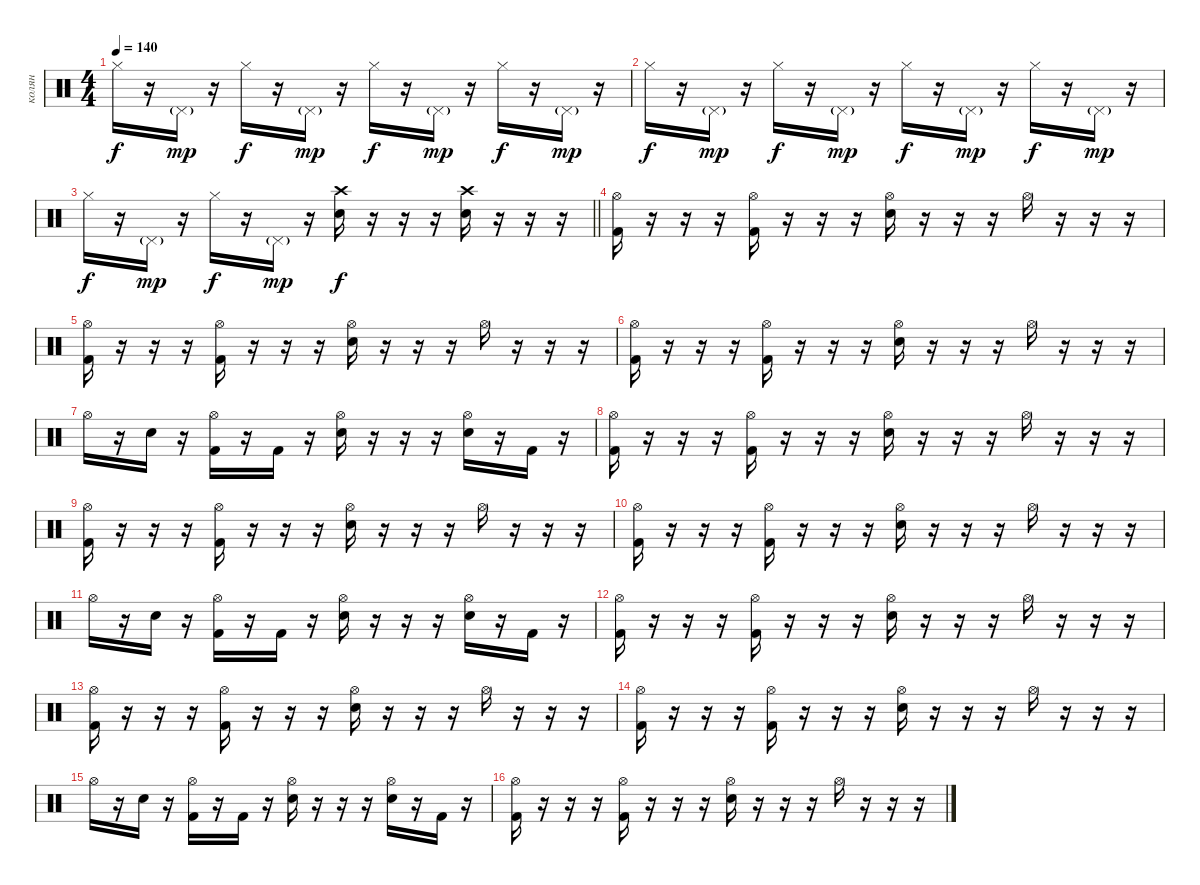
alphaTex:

\track ("колян" "колян") {instrument percussion}
\staff {score}
\articulation defaults
\ts (4 4)
\tempo 140
\clef neutral
\ks c "Hi-Hat (closed)".16{dy f}
r.16 "Pedal Hi-Hat (hit)"{g}.16{dy mp} r.16 "Hi-Hat (closed)".16{dy f} r.16 "Pedal Hi-Hat (hit)"{g}.16{dy mp} r.16 "Hi-Hat (closed)".16{dy f} r.16 "Pedal Hi-Hat (hit)"{g}.16{dy mp} r.16 "Hi-Hat (closed)".16{dy f} r.16 "Pedal Hi-Hat (hit)"{g}.16{dy mp} r.16 |
"Hi-Hat (closed)".16{dy f} r.16 "Pedal Hi-Hat (hit)"{g}.16{dy mp} r.16 "Hi-Hat (closed)".16{dy f} r.16 "Pedal Hi-Hat (hit)"{g}.16{dy mp} r.16 "Hi-Hat (closed)".16{dy f} r.16 "Pedal Hi-Hat (hit)"{g}.16{dy mp} r.16 "Hi-Hat (closed)".16{dy f} r.16 "Pedal Hi-Hat (hit)"{g}.16{dy mp} r.16 |
\barLineRight lightlight "Hi-Hat (closed)".16{dy f}
r.16 "Pedal Hi-Hat (hit)"{g}.16{dy mp} r.16 "Hi-Hat (closed)".16{dy f} r.16 "Pedal Hi-Hat (hit)"{g}.16{dy mp} r.16 ("Snare (hit) 2" "Crash high (hit)").16{dy f} r.16 r.16 r.16 ("Snare (hit) 2" "Crash high (hit)").16 r.16 r.16 r.16 |
("Kick (hit) 2" "Hi-Hat (open)").16 r.16 r.16 r.16 ("Kick (hit) 2" "Hi-Hat (open)").16 r.16 r.16 r.16 ("Snare (hit) 2" "Hi-Hat (open)").16 r.16 r.16 r.16 "Hi-Hat (open)".16 r.16 r.16 r.16 |
("Kick (hit) 2" "Hi-Hat (open)").16 r.16 r.16 r.16 ("Kick (hit) 2" "Hi-Hat (open)").16 r.16 r.16 r.16 ("Snare (hit) 2" "Hi-Hat (open)").16 r.16 r.16 r.16 "Hi-Hat (open)".16 r.16 r.16 r.16 |
("Kick (hit) 2" "Hi-Hat (open)").16 r.16 r.16 r.16 ("Kick (hit) 2" "Hi-Hat (open)").16 r.16 r.16 r.16 ("Snare (hit) 2" "Hi-Hat (open)").16 r.16 r.16 r.16 "Hi-Hat (open)".16 r.16 r.16 r.16 |
"Hi-Hat (open)".16 r.16 "Snare (hit) 2".16 r.16 ("Kick (hit) 2" "Hi-Hat (open)").16 r.16 "Kick (hit) 2".16 r.16 ("Snare (hit) 2" "Hi-Hat (open)").16 r.16 r.16 r.16 ("Snare (hit) 2" "Hi-Hat (open)").16 r.16 "Kick (hit) 2".16 r.16 |
("Kick (hit) 2" "Hi-Hat (open)").16 r.16 r.16 r.16 ("Kick (hit) 2" "Hi-Hat (open)").16 r.16 r.16 r.16 ("Snare (hit) 2" "Hi-Hat (open)").16 r.16 r.16 r.16 "Hi-Hat (open)".16 r.16 r.16 r.16 |
("Kick (hit) 2" "Hi-Hat (open)").16 r.16 r.16 r.16 ("Kick (hit) 2" "Hi-Hat (open)").16 r.16 r.16 r.16 ("Snare (hit) 2" "Hi-Hat (open)").16 r.16 r.16 r.16 "Hi-Hat (open)".16 r.16 r.16 r.16 |
("Kick (hit) 2" "Hi-Hat (open)").16 r.16 r.16 r.16 ("Kick (hit) 2" "Hi-Hat (open)").16 r.16 r.16 r.16 ("Snare (hit) 2" "Hi-Hat (open)").16 r.16 r.16 r.16 "Hi-Hat (open)".16 r.16 r.16 r.16 |
"Hi-Hat (open)".16 r.16 "Snare (hit) 2".16 r.16 ("Kick (hit) 2" "Hi-Hat (open)").16 r.16 "Kick (hit) 2".16 r.16 ("Snare (hit) 2" "Hi-Hat (open)").16 r.16 r.16 r.16 ("Snare (hit) 2" "Hi-Hat (open)").16 r.16 "Kick (hit) 2".16 r.16 |
("Kick (hit) 2" "Hi-Hat (open)").16 r.16 r.16 r.16 ("Kick (hit) 2" "Hi-Hat (open)").16 r.16 r.16 r.16 ("Snare (hit) 2" "Hi-Hat (open)").16 r.16 r.16 r.16 "Hi-Hat (open)".16 r.16 r.16 r.16 |
("Kick (hit) 2" "Hi-Hat (open)").16 r.16 r.16 r.16 ("Kick (hit) 2" "Hi-Hat (open)").16 r.16 r.16 r.16 ("Snare (hit) 2" "Hi-Hat (open)").16 r.16 r.16 r.16 "Hi-Hat (open)".16 r.16 r.16 r.16 |
("Kick (hit) 2" "Hi-Hat (open)").16 r.16 r.16 r.16 ("Kick (hit) 2" "Hi-Hat (open)").16 r.16 r.16 r.16 ("Snare (hit) 2" "Hi-Hat (open)").16 r.16 r.16 r.16 "Hi-Hat (open)".16 r.16 r.16 r.16 |
"Hi-Hat (open)".16 r.16 "Snare (hit) 2".16 r.16 ("Kick (hit) 2" "Hi-Hat (open)").16 r.16 "Kick (hit) 2".16 r.16 ("Snare (hit) 2" "Hi-Hat (open)").16 r.16 r.16 r.16 ("Snare (hit) 2" "Hi-Hat (open)").16 r.16 "Kick (hit) 2".16 r.16 |
("Kick (hit) 2" "Hi-Hat (open)").16 r.16 r.16 r.16 ("Kick (hit) 2" "Hi-Hat (open)").16 r.16 r.16 r.16 ("Snare (hit) 2" "Hi-Hat (open)").16 r.16 r.16 r.16 "Hi-Hat (open)".16 r.16 r.16 r.16
